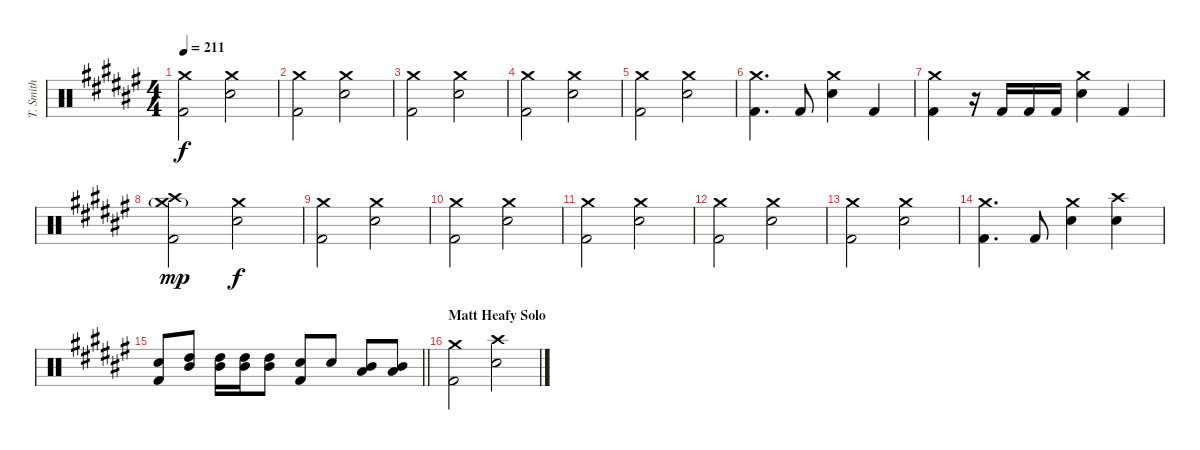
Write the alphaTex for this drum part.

\track ("T. Smith" "T. Smith") {instrument percussion}
\staff {score}
\articulation defaults
\ts (4 4)
\tempo 211
\clef neutral
\ks d#minor
("Crash medium (hit)" "Kick (hit) 2").2{dy f} ("Crash medium (hit)" "Electric Snare (hit)").2 |
("Crash medium (hit)" "Kick (hit) 2").2 ("Crash medium (hit)" "Electric Snare (hit)").2 |
("Crash medium (hit)" "Kick (hit) 2").2 ("Crash medium (hit)" "Electric Snare (hit)").2 |
("Crash medium (hit)" "Kick (hit) 2").2 ("Crash medium (hit)" "Electric Snare (hit)").2 |
("Crash medium (hit)" "Kick (hit) 2").2 ("Crash medium (hit)" "Electric Snare (hit)").2 |
("Crash medium (hit)" "Kick (hit) 2").4{d} "Kick (hit) 2".8 ("Crash medium (hit)" "Electric Snare (hit)").4 "Kick (hit) 2".4 |
("Crash medium (hit)" "Kick (hit) 2").4 r.16 "Kick (hit) 2".16 "Kick (hit) 2".16 "Kick (hit) 2".16 ("Crash medium (hit)" "Electric Snare (hit)").4 "Kick (hit) 2".4 |
("Crash medium (hit)"{g} "Crash high (hit)" "Kick (hit) 2").2{dy mp} ("Crash medium (hit)" "Electric Snare (hit)").2{dy f} |
("Crash medium (hit)" "Kick (hit) 2").2 ("Crash medium (hit)" "Electric Snare (hit)").2 |
("Crash medium (hit)" "Kick (hit) 2").2 ("Crash medium (hit)" "Electric Snare (hit)").2 |
("Crash medium (hit)" "Kick (hit) 2").2 ("Crash medium (hit)" "Electric Snare (hit)").2 |
("Crash medium (hit)" "Kick (hit) 2").2 ("Crash medium (hit)" "Electric Snare (hit)").2 |
("Crash medium (hit)" "Kick (hit) 2").2 ("Crash medium (hit)" "Electric Snare (hit)").2 |
("Crash medium (hit)" "Kick (hit) 2").4{d} "Kick (hit) 2".8 ("Crash medium (hit)" "Electric Snare (hit)").4 ("Crash high (hit)" "Electric Snare (hit)").4 |
\barLineRight lightlight
("Electric Snare (hit)" "Kick (hit) 2").8 ("High Tom (hit)" "Mid Tom (hit)").8 ("High Tom (hit)" "Mid Tom (hit)").16 ("High Tom (hit)" "Mid Tom (hit)").16 ("High Tom (hit)" "Mid Tom (hit)").8 ("Electric Snare (hit)" "Kick (hit) 2").8 "Electric Snare (hit)".8 ("Mid Tom (hit)" "Low Tom (hit)").8 ("Mid Tom (hit)" "Low Tom (hit)").8 |
\section ("" "Matt Heafy Solo")
("Crash medium (hit)" "Kick (hit) 2").2 ("Crash high (hit)" "Electric Snare (hit)").2
